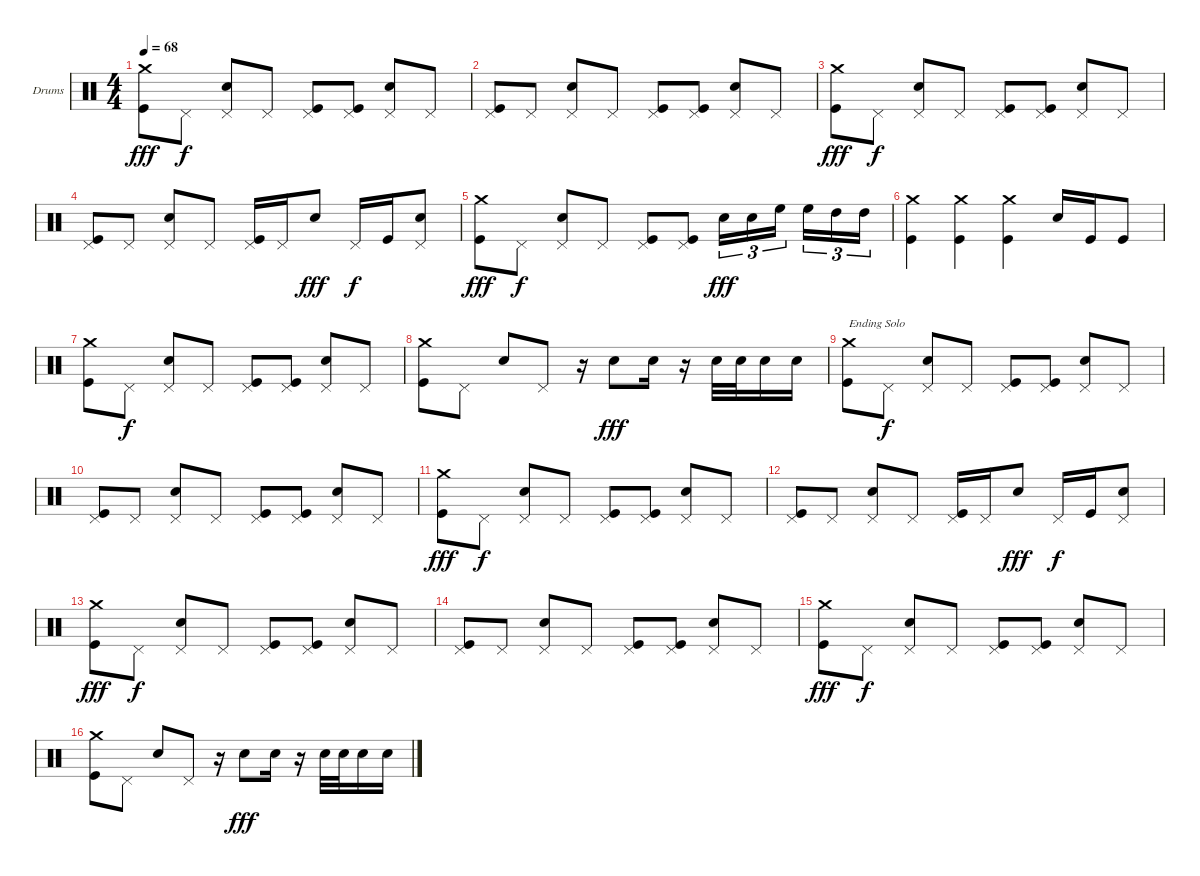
\bracketExtendMode groupsimilarinstruments
\firstSystemTrackNameOrientation horizontal
\otherSystemsTrackNameOrientation horizontal
\track ("Drumkit" "Drums") {instrument percussion}
\staff {score}
\articulation defaults
\ts (4 4)
\tempo 68
\clef neutral
\ks c
("Crash medium (hit)" "Kick (hit)").8{dy fff} "Pedal Hi-Hat (hit)".8{dy f} ("Pedal Hi-Hat (hit)" "Snare (hit) 2").8 "Pedal Hi-Hat (hit)".8 ("Pedal Hi-Hat (hit)" "Kick (hit)").8 ("Pedal Hi-Hat (hit)" "Kick (hit)").8 ("Pedal Hi-Hat (hit)" "Snare (hit) 2").8 "Pedal Hi-Hat (hit)".8 |
("Pedal Hi-Hat (hit)" "Kick (hit)").8 "Pedal Hi-Hat (hit)".8 ("Pedal Hi-Hat (hit)" "Snare (hit) 2").8 "Pedal Hi-Hat (hit)".8 ("Pedal Hi-Hat (hit)" "Kick (hit)").8 ("Pedal Hi-Hat (hit)" "Kick (hit)").8 ("Pedal Hi-Hat (hit)" "Snare (hit) 2").8 "Pedal Hi-Hat (hit)".8 |
("Crash medium (hit)" "Kick (hit)").8{dy fff} "Pedal Hi-Hat (hit)".8{dy f} ("Pedal Hi-Hat (hit)" "Snare (hit) 2").8 "Pedal Hi-Hat (hit)".8 ("Pedal Hi-Hat (hit)" "Kick (hit)").8 ("Pedal Hi-Hat (hit)" "Kick (hit)").8 ("Pedal Hi-Hat (hit)" "Snare (hit) 2").8 "Pedal Hi-Hat (hit)".8 |
("Pedal Hi-Hat (hit)" "Kick (hit)").8 "Pedal Hi-Hat (hit)".8 ("Pedal Hi-Hat (hit)" "Snare (hit) 2").8 "Pedal Hi-Hat (hit)".8 ("Pedal Hi-Hat (hit)" "Kick (hit)").16 "Pedal Hi-Hat (hit)".16 "Snare (hit) 2".8{dy fff} "Pedal Hi-Hat (hit)".16{dy f} "Kick (hit)".16 ("Pedal Hi-Hat (hit)" "Snare (hit) 2").8 |
("Crash medium (hit)" "Kick (hit)").8{dy fff} "Pedal Hi-Hat (hit)".8{dy f} ("Pedal Hi-Hat (hit)" "Snare (hit) 2").8 "Pedal Hi-Hat (hit)".8 ("Pedal Hi-Hat (hit)" "Kick (hit)").8 ("Pedal Hi-Hat (hit)" "Kick (hit)").8 "Snare (hit) 2".16{tu (3 2) dy fff} "Snare (hit) 2".16{tu (3 2)} "High Floor Tom (hit)".16{tu (3 2)} "High Floor Tom (hit)".16{tu (3 2)} "High Tom (hit)".16{tu (3 2)} "High Tom (hit)".16{tu (3 2)} |
("Crash medium (hit)" "Kick (hit)").4 ("Crash medium (hit)" "Kick (hit)").4 ("Crash medium (hit)" "Kick (hit)").4 "Snare (hit) 2".16 "Kick (hit)".16 "Kick (hit)".8 |
("Crash medium (hit)" "Kick (hit)").8 "Pedal Hi-Hat (hit)".8{dy f} ("Pedal Hi-Hat (hit)" "Snare (hit) 2").8 "Pedal Hi-Hat (hit)".8 ("Pedal Hi-Hat (hit)" "Kick (hit)").8 ("Pedal Hi-Hat (hit)" "Kick (hit)").8 ("Pedal Hi-Hat (hit)" "Snare (hit) 2").8 "Pedal Hi-Hat (hit)".8 |
("Crash medium (hit)" "Kick (hit)").8 "Pedal Hi-Hat (hit)".8 "Snare (hit) 2".8 "Pedal Hi-Hat (hit)".8 r.16 "Snare (hit) 2".8{dy fff} "Snare (hit) 2".16 r.16 "Snare (hit) 2".32 "Snare (hit) 2".32 "Snare (hit) 2".16 "Snare (hit) 2".16 |
("Crash medium (hit)" "Kick (hit)").8{txt "Ending Solo"} "Pedal Hi-Hat (hit)".8{dy f} ("Pedal Hi-Hat (hit)" "Snare (hit) 2").8 "Pedal Hi-Hat (hit)".8 ("Pedal Hi-Hat (hit)" "Kick (hit)").8 ("Pedal Hi-Hat (hit)" "Kick (hit)").8 ("Pedal Hi-Hat (hit)" "Snare (hit) 2").8 "Pedal Hi-Hat (hit)".8 |
("Pedal Hi-Hat (hit)" "Kick (hit)").8 "Pedal Hi-Hat (hit)".8 ("Pedal Hi-Hat (hit)" "Snare (hit) 2").8 "Pedal Hi-Hat (hit)".8 ("Pedal Hi-Hat (hit)" "Kick (hit)").8 ("Pedal Hi-Hat (hit)" "Kick (hit)").8 ("Pedal Hi-Hat (hit)" "Snare (hit) 2").8 "Pedal Hi-Hat (hit)".8 |
("Crash medium (hit)" "Kick (hit)").8{dy fff} "Pedal Hi-Hat (hit)".8{dy f} ("Pedal Hi-Hat (hit)" "Snare (hit) 2").8 "Pedal Hi-Hat (hit)".8 ("Pedal Hi-Hat (hit)" "Kick (hit)").8 ("Pedal Hi-Hat (hit)" "Kick (hit)").8 ("Pedal Hi-Hat (hit)" "Snare (hit) 2").8 "Pedal Hi-Hat (hit)".8 |
("Pedal Hi-Hat (hit)" "Kick (hit)").8 "Pedal Hi-Hat (hit)".8 ("Pedal Hi-Hat (hit)" "Snare (hit) 2").8 "Pedal Hi-Hat (hit)".8 ("Pedal Hi-Hat (hit)" "Kick (hit)").16 "Pedal Hi-Hat (hit)".16 "Snare (hit) 2".8{dy fff} "Pedal Hi-Hat (hit)".16{dy f} "Kick (hit)".16 ("Pedal Hi-Hat (hit)" "Snare (hit) 2").8 |
("Crash medium (hit)" "Kick (hit)").8{dy fff} "Pedal Hi-Hat (hit)".8{dy f} ("Pedal Hi-Hat (hit)" "Snare (hit) 2").8 "Pedal Hi-Hat (hit)".8 ("Pedal Hi-Hat (hit)" "Kick (hit)").8 ("Pedal Hi-Hat (hit)" "Kick (hit)").8 ("Pedal Hi-Hat (hit)" "Snare (hit) 2").8 "Pedal Hi-Hat (hit)".8 |
("Pedal Hi-Hat (hit)" "Kick (hit)").8 "Pedal Hi-Hat (hit)".8 ("Pedal Hi-Hat (hit)" "Snare (hit) 2").8 "Pedal Hi-Hat (hit)".8 ("Pedal Hi-Hat (hit)" "Kick (hit)").8 ("Pedal Hi-Hat (hit)" "Kick (hit)").8 ("Pedal Hi-Hat (hit)" "Snare (hit) 2").8 "Pedal Hi-Hat (hit)".8 |
("Crash medium (hit)" "Kick (hit)").8{dy fff} "Pedal Hi-Hat (hit)".8{dy f} ("Pedal Hi-Hat (hit)" "Snare (hit) 2").8 "Pedal Hi-Hat (hit)".8 ("Pedal Hi-Hat (hit)" "Kick (hit)").8 ("Pedal Hi-Hat (hit)" "Kick (hit)").8 ("Pedal Hi-Hat (hit)" "Snare (hit) 2").8 "Pedal Hi-Hat (hit)".8 |
("Crash medium (hit)" "Kick (hit)").8 "Pedal Hi-Hat (hit)".8 "Snare (hit) 2".8 "Pedal Hi-Hat (hit)".8 r.16 "Snare (hit) 2".8{dy fff} "Snare (hit) 2".16 r.16 "Snare (hit) 2".32 "Snare (hit) 2".32 "Snare (hit) 2".16 "Snare (hit) 2".16
